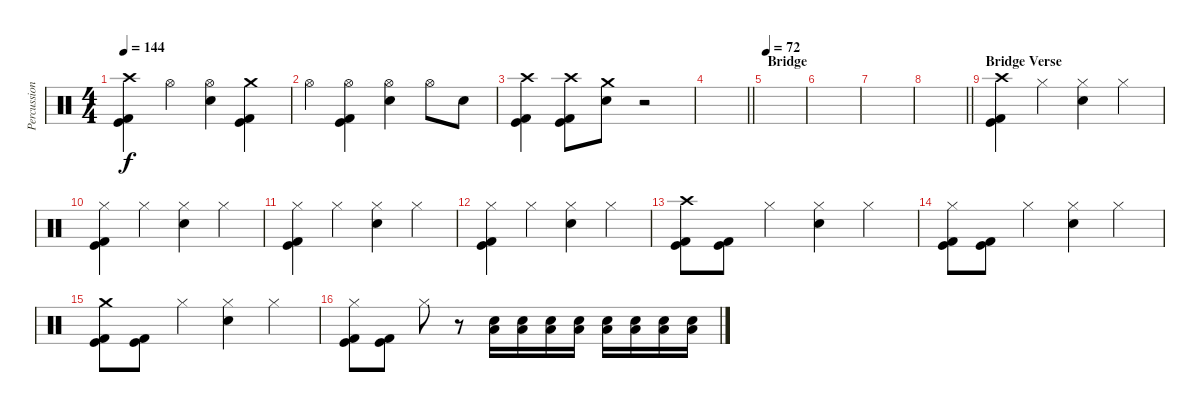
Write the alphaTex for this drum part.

\track ("Percussion" "Percussion") {instrument percussion}
\staff {score}
\articulation defaults
\ts (4 4)
\tempo 144
\clef neutral
\ks c
("Crash high (hit)" "Kick (hit)" "Kick (hit) 2").4{dy f} "Hi-Hat (open)".4 ("Hi-Hat (open)" "Electric Snare (hit)").4 ("Crash medium (hit)" "Kick (hit)" "Kick (hit) 2").4 |
"Hi-Hat (open)".4 ("Hi-Hat (open)" "Kick (hit)" "Kick (hit) 2").4 ("Hi-Hat (open)" "Electric Snare (hit)").4 "Hi-Hat (open)".8 "Electric Snare (hit)".8 |
("Crash high (hit)" "Kick (hit)" "Kick (hit) 2").4 ("Crash high (hit)" "Kick (hit)" "Kick (hit) 2").8 ("Crash medium (hit)" "Electric Snare (hit)").8 r.2 |
\barLineRight lightlight
|
\section ("" "Bridge")
\tempo 72
|
|
|
\barLineRight lightlight
|
\section ("" "Bridge Verse")
("Crash high (hit)" "Kick (hit)" "Kick (hit) 2").4 "Hi-Hat (closed)".4 ("Hi-Hat (closed)" "Electric Snare (hit)").4 "Hi-Hat (closed)".4 |
("Hi-Hat (closed)" "Kick (hit)" "Kick (hit) 2").4 "Hi-Hat (closed)".4 ("Hi-Hat (closed)" "Electric Snare (hit)").4 "Hi-Hat (closed)".4 |
("Hi-Hat (closed)" "Kick (hit)" "Kick (hit) 2").4 "Hi-Hat (closed)".4 ("Hi-Hat (closed)" "Electric Snare (hit)").4 "Hi-Hat (closed)".4 |
("Hi-Hat (closed)" "Kick (hit)" "Kick (hit) 2").4 "Hi-Hat (closed)".4 ("Hi-Hat (closed)" "Electric Snare (hit)").4 "Hi-Hat (closed)".4 |
("Crash high (hit)" "Kick (hit)" "Kick (hit) 2").8 ("Kick (hit)" "Kick (hit) 2").8 "Hi-Hat (closed)".4 ("Hi-Hat (closed)" "Electric Snare (hit)").4 "Hi-Hat (closed)".4 |
("Hi-Hat (closed)" "Kick (hit)" "Kick (hit) 2").8 ("Kick (hit)" "Kick (hit) 2").8 "Hi-Hat (closed)".4 ("Hi-Hat (closed)" "Electric Snare (hit)").4 "Hi-Hat (closed)".4 |
("Crash medium (hit)" "Kick (hit)" "Kick (hit) 2").8 ("Kick (hit)" "Kick (hit) 2").8 "Hi-Hat (closed)".4 ("Hi-Hat (closed)" "Electric Snare (hit)").4 "Hi-Hat (closed)".4 |
("Hi-Hat (closed)" "Kick (hit)" "Kick (hit) 2").8 ("Kick (hit)" "Kick (hit) 2").8 "Hi-Hat (closed)".8 r.8{volume 0} ("Electric Snare (hit)" "Low Floor Tom (hit)").16{volume 16} ("Electric Snare (hit)" "Low Floor Tom (hit)").16 ("Electric Snare (hit)" "Low Floor Tom (hit)").16 ("Electric Snare (hit)" "Low Floor Tom (hit)").16 ("Electric Snare (hit)" "Low Floor Tom (hit)").16 ("Electric Snare (hit)" "Low Floor Tom (hit)").16 ("Electric Snare (hit)" "Low Floor Tom (hit)").16 ("Electric Snare (hit)" "Low Floor Tom (hit)").16
